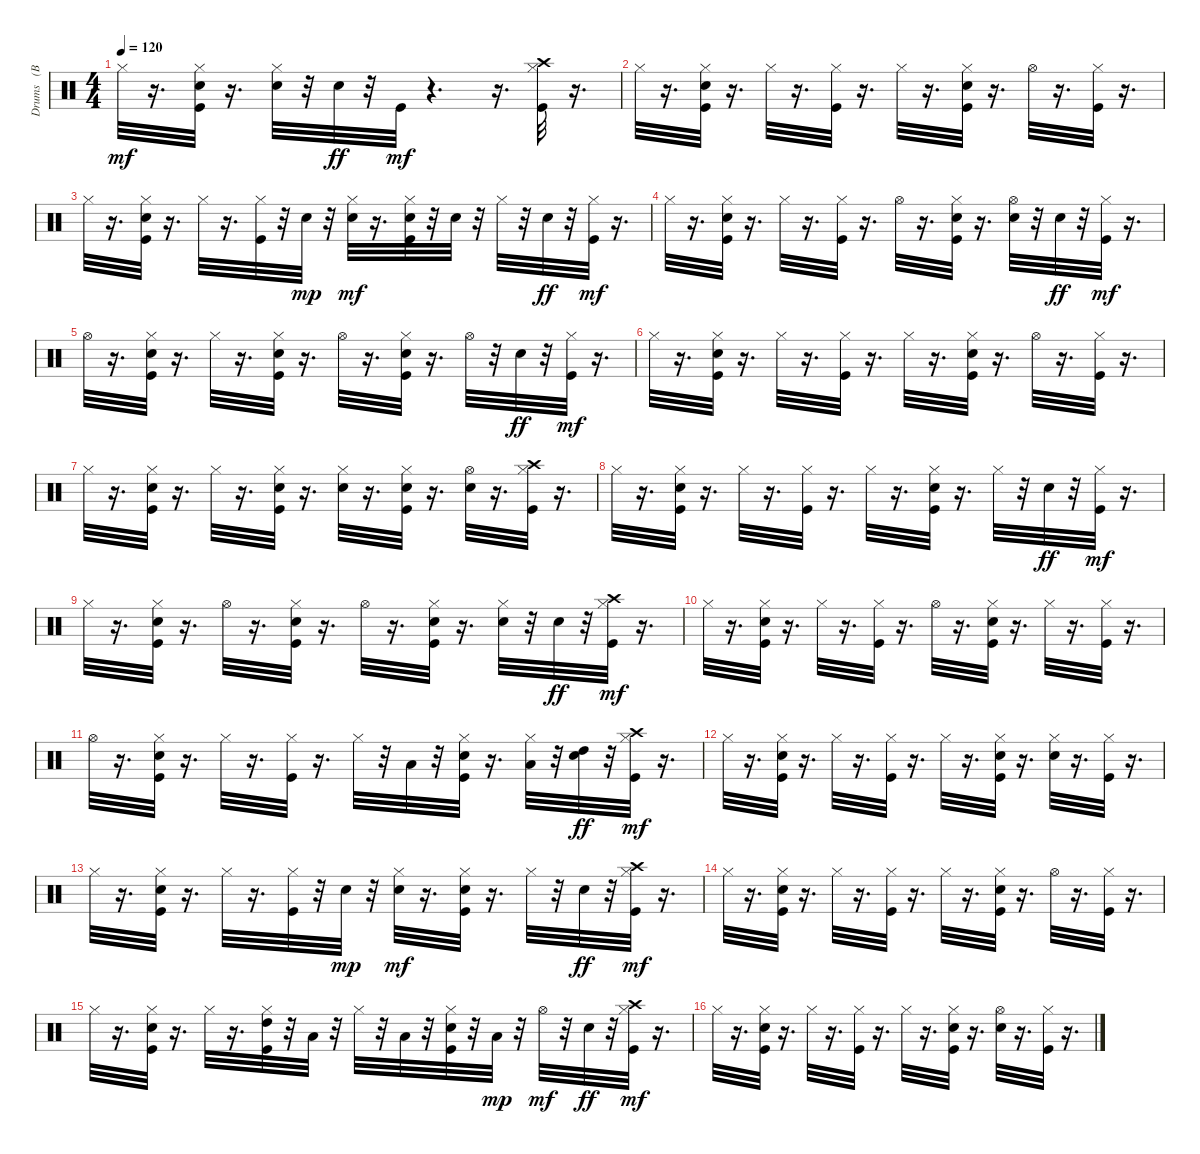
\track ("Drums   (BB)" "Drums   (B") {instrument percussion}
\staff {score}
\articulation defaults
\ts (4 4)
\tempo 120
\clef neutral
\ks c "Hi-Hat (closed)".32{dy mf}
r.16{d} ("Kick (hit)" "Snare (hit) 2" "Hi-Hat (closed)").32 r.16{d} ("Snare (hit) 2" "Hi-Hat (closed)").32 r.32 "Snare (hit) 2".32{dy ff} r.32 "Kick (hit)".32{dy mf} r.4{d} r.16{d} ("Crash high (hit)" "Kick (hit)" "Hi-Hat (closed)").32 r.16{d} |
"Hi-Hat (closed)".32 r.16{d} ("Kick (hit)" "Snare (hit) 2" "Hi-Hat (closed)").32 r.16{d} "Hi-Hat (closed)".32 r.16{d} ("Kick (hit)" "Hi-Hat (closed)").32 r.16{d} "Hi-Hat (closed)".32 r.16{d} ("Kick (hit)" "Snare (hit) 2" "Hi-Hat (closed)").32 r.16{d} "Hi-Hat (open)".32 r.16{d} ("Kick (hit)" "Hi-Hat (closed)").32 r.16{d} |
"Hi-Hat (closed)".32 r.16{d} ("Kick (hit)" "Snare (hit) 2" "Hi-Hat (closed)").32 r.16{d} "Hi-Hat (closed)".32 r.16{d} ("Kick (hit)" "Hi-Hat (closed)").32 r.32 "Snare (hit) 2".32{dy mp} r.32 ("Snare (hit) 2" "Hi-Hat (closed)").32{dy mf} r.16{d} ("Kick (hit)" "Snare (hit) 2" "Hi-Hat (closed)").32 r.32 "Snare (hit) 2".32 r.32 "Hi-Hat (closed)".32 r.32 "Snare (hit) 2".32{dy ff} r.32 ("Kick (hit)" "Hi-Hat (closed)").32{dy mf} r.16{d} |
"Hi-Hat (closed)".32 r.16{d} ("Kick (hit)" "Snare (hit) 2" "Hi-Hat (closed)").32 r.16{d} "Hi-Hat (closed)".32 r.16{d} ("Kick (hit)" "Hi-Hat (closed)").32 r.16{d} "Hi-Hat (open)".32 r.16{d} ("Kick (hit)" "Snare (hit) 2" "Hi-Hat (closed)").32 r.16{d} ("Snare (hit) 2" "Hi-Hat (open)").32 r.32 "Snare (hit) 2".32{dy ff} r.32 ("Kick (hit)" "Hi-Hat (closed)").32{dy mf} r.16{d} |
"Hi-Hat (open)".32 r.16{d} ("Kick (hit)" "Snare (hit) 2" "Hi-Hat (closed)").32 r.16{d} "Hi-Hat (closed)".32 r.16{d} ("Kick (hit)" "Snare (hit) 2" "Hi-Hat (closed)").32 r.16{d} "Hi-Hat (open)".32 r.16{d} ("Kick (hit)" "Snare (hit) 2" "Hi-Hat (closed)").32 r.16{d} "Hi-Hat (open)".32 r.32 "Snare (hit) 2".32{dy ff} r.32 ("Hi-Hat (closed)" "Kick (hit)").32{dy mf} r.16{d} |
"Hi-Hat (closed)".32 r.16{d} ("Kick (hit)" "Snare (hit) 2" "Hi-Hat (closed)").32 r.16{d} "Hi-Hat (closed)".32 r.16{d} ("Kick (hit)" "Hi-Hat (closed)").32 r.16{d} "Hi-Hat (closed)".32 r.16{d} ("Kick (hit)" "Snare (hit) 2" "Hi-Hat (closed)").32 r.16{d} "Hi-Hat (open)".32 r.16{d} ("Kick (hit)" "Hi-Hat (closed)").32 r.16{d} |
"Hi-Hat (closed)".32 r.16{d} ("Kick (hit)" "Snare (hit) 2" "Hi-Hat (closed)").32 r.16{d} "Hi-Hat (closed)".32 r.16{d} ("Kick (hit)" "Snare (hit) 2" "Hi-Hat (closed)").32 r.16{d} ("Snare (hit) 2" "Hi-Hat (closed)").32 r.16{d} ("Kick (hit)" "Snare (hit) 2" "Hi-Hat (closed)").32 r.16{d} ("Snare (hit) 2" "Hi-Hat (open)").32 r.16{d} ("Hi-Hat (closed)" "Crash high (hit)" "Kick (hit)").32 r.16{d} |
"Hi-Hat (closed)".32 r.16{d} ("Kick (hit)" "Snare (hit) 2" "Hi-Hat (closed)").32 r.16{d} "Hi-Hat (closed)".32 r.16{d} ("Kick (hit)" "Hi-Hat (closed)").32 r.16{d} "Hi-Hat (closed)".32 r.16{d} ("Kick (hit)" "Snare (hit) 2" "Hi-Hat (closed)").32 r.16{d} "Hi-Hat (closed)".32 r.32 "Snare (hit) 2".32{dy ff} r.32 ("Kick (hit)" "Hi-Hat (closed)").32{dy mf} r.16{d} |
"Hi-Hat (closed)".32 r.16{d} ("Kick (hit)" "Snare (hit) 2" "Hi-Hat (closed)").32 r.16{d} "Hi-Hat (open)".32 r.16{d} ("Kick (hit)" "Snare (hit) 2" "Hi-Hat (closed)").32 r.16{d} "Hi-Hat (open)".32 r.16{d} ("Kick (hit)" "Snare (hit) 2" "Hi-Hat (closed)").32 r.16{d} ("Snare (hit) 2" "Hi-Hat (closed)").32 r.32 "Snare (hit) 2".32{dy ff} r.32 ("Hi-Hat (closed)" "Crash high (hit)" "Kick (hit)").32{dy mf} r.16{d} |
"Hi-Hat (closed)".32 r.16{d} ("Kick (hit)" "Snare (hit) 2" "Hi-Hat (closed)").32 r.16{d} "Hi-Hat (closed)".32 r.16{d} ("Kick (hit)" "Hi-Hat (closed)").32 r.16{d} "Hi-Hat (open)".32 r.16{d} ("Kick (hit)" "Snare (hit) 2" "Hi-Hat (closed)").32 r.16{d} "Hi-Hat (closed)".32 r.16{d} ("Kick (hit)" "Hi-Hat (closed)").32 r.16{d} |
"Hi-Hat (open)".32 r.16{d} ("Kick (hit)" "Snare (hit) 2" "Hi-Hat (closed)").32 r.16{d} "Hi-Hat (closed)".32 r.16{d} ("Kick (hit)" "Hi-Hat (closed)").32 r.16{d} "Hi-Hat (closed)".32 r.32 "Low Tom (hit)".32 r.32 ("Kick (hit)" "Snare (hit) 2" "Hi-Hat (closed)").32 r.16{d} ("Hi-Hat (closed)" "Low Tom (hit)").32 r.32 ("Snare (hit) 2" "High Tom (hit)").32{dy ff} r.32 ("Hi-Hat (closed)" "Crash high (hit)" "Kick (hit)").32{dy mf} r.16{d} |
"Hi-Hat (closed)".32 r.16{d} ("Kick (hit)" "Snare (hit) 2" "Hi-Hat (closed)").32 r.16{d} "Hi-Hat (closed)".32 r.16{d} ("Kick (hit)" "Hi-Hat (closed)").32 r.16{d} "Hi-Hat (closed)".32 r.16{d} ("Kick (hit)" "Snare (hit) 2" "Hi-Hat (closed)").32 r.16{d} ("Snare (hit) 2" "Hi-Hat (closed)").32 r.16{d} ("Kick (hit)" "Hi-Hat (closed)").32 r.16{d} |
"Hi-Hat (closed)".32 r.16{d} ("Kick (hit)" "Snare (hit) 2" "Hi-Hat (closed)").32 r.16{d} "Hi-Hat (closed)".32 r.16{d} ("Kick (hit)" "Hi-Hat (closed)").32 r.32 "Snare (hit) 2".32{dy mp} r.32 ("Snare (hit) 2" "Hi-Hat (closed)").32{dy mf} r.16{d} ("Kick (hit)" "Snare (hit) 2" "Hi-Hat (closed)").32 r.16{d} "Hi-Hat (closed)".32 r.32 "Snare (hit) 2".32{dy ff} r.32 ("Hi-Hat (closed)" "Crash high (hit)" "Kick (hit)").32{dy mf} r.16{d} |
"Hi-Hat (closed)".32 r.16{d} ("Kick (hit)" "Snare (hit) 2" "Hi-Hat (closed)").32 r.16{d} "Hi-Hat (closed)".32 r.16{d} ("Kick (hit)" "Hi-Hat (closed)").32 r.16{d} "Hi-Hat (closed)".32 r.16{d} ("Kick (hit)" "Snare (hit) 2" "Hi-Hat (closed)").32 r.16{d} "Hi-Hat (open)".32 r.16{d} ("Kick (hit)" "Hi-Hat (closed)").32 r.16{d} |
"Hi-Hat (closed)".32 r.16{d} ("Kick (hit)" "Snare (hit) 2" "Hi-Hat (closed)").32 r.16{d} "Hi-Hat (closed)".32 r.16{d} ("Kick (hit)" "Hi-Hat (closed)" "High Tom (hit)").32 r.32 "Low Tom (hit)".32 r.32 "Hi-Hat (closed)".32 r.32 "Low Tom (hit)".32 r.32 ("Kick (hit)" "Snare (hit) 2" "Hi-Hat (closed)").32 r.32 "Low Tom (hit)".32{dy mp} r.32 "Hi-Hat (open)".32{dy mf} r.32 "Snare (hit) 2".32{dy ff} r.32 ("Kick (hit)" "Crash high (hit)" "Hi-Hat (closed)").32{dy mf} r.16{d} |
"Hi-Hat (closed)".32 r.16{d} ("Kick (hit)" "Snare (hit) 2" "Hi-Hat (closed)").32 r.16{d} "Hi-Hat (closed)".32 r.16{d} ("Kick (hit)" "Hi-Hat (closed)").32 r.16{d} "Hi-Hat (closed)".32 r.16{d} ("Kick (hit)" "Snare (hit) 2" "Hi-Hat (closed)").32 r.16{d} ("Snare (hit) 2" "Hi-Hat (open)").32 r.16{d} ("Kick (hit)" "Hi-Hat (closed)").32 r.16{d}
